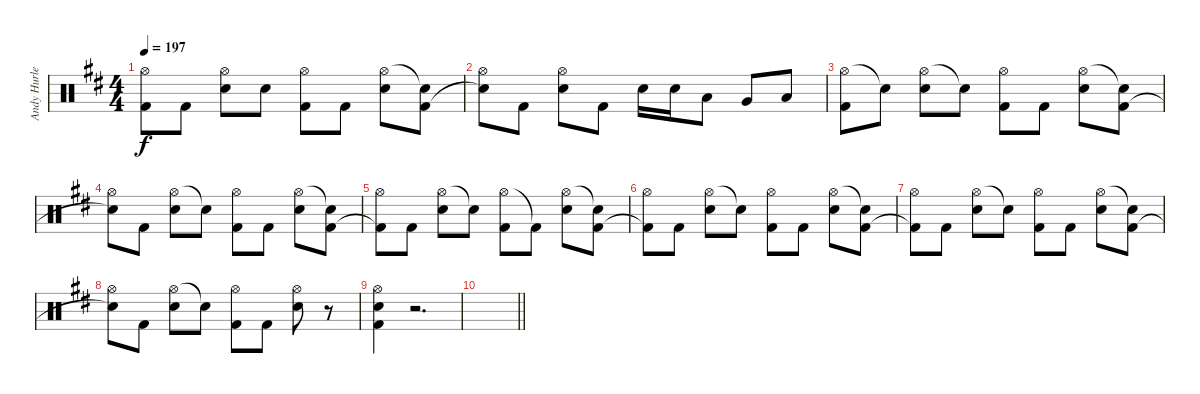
\track ("Andy Hurley (Drums)" "Andy Hurle") {instrument percussion}
\staff {score}
\articulation defaults
\ts (4 4)
\tempo 197
\clef neutral
\ks d
("Hi-Hat (open)" "Kick (hit) 2"{t}).8{dy f} "Kick (hit) 2".8 ("Hi-Hat (open)" "Electric Snare (hit)").8 "Electric Snare (hit)".8 ("Hi-Hat (open)" "Kick (hit) 2").8 "Kick (hit) 2".8 ("Hi-Hat (open)" "Electric Snare (hit)").8 ("Snare (hit)"{t} "Kick (hit) 2").8 |
("Hi-Hat (open)" "Snare (hit)"{t}).8 "Kick (hit) 2".8 ("Hi-Hat (open)" "Electric Snare (hit)").8 "Kick (hit) 2".8 "Electric Snare (hit)".16 "Electric Snare (hit)".16 "Low Tom (hit)".8 "Very Low Tom (hit)".8 "Low Floor Tom (hit)".8 |
("Hi-Hat (open)" "Kick (hit) 2").8 "Snare (hit)"{t}.8 ("Hi-Hat (open)" "Electric Snare (hit)").8 "Snare (hit)"{t}.8 ("Hi-Hat (open)" "Kick (hit) 2").8 "Kick (hit) 2".8 ("Hi-Hat (open)" "Electric Snare (hit)").8 ("Snare (hit)"{t} "Kick (hit) 2").8 |
("Hi-Hat (open)" "Snare (hit)"{t}).8 "Kick (hit) 2".8 ("Hi-Hat (open)" "Electric Snare (hit)").8 "Snare (hit)"{t}.8 ("Hi-Hat (open)" "Kick (hit) 2").8 "Kick (hit) 2".8 ("Hi-Hat (open)" "Electric Snare (hit)").8 ("Snare (hit)"{t} "Kick (hit) 2").8 |
("Hi-Hat (open)" "Kick (hit) 2"{t}).8 "Kick (hit) 2".8 ("Hi-Hat (open)" "Electric Snare (hit)").8 "Snare (hit)"{t}.8 ("Hi-Hat (open)" "Kick (hit) 2").8 "Kick (hit) 2"{t}.8 ("Hi-Hat (open)" "Electric Snare (hit)").8 ("Snare (hit)"{t} "Kick (hit) 2").8 |
("Hi-Hat (open)" "Kick (hit) 2"{t}).8 "Kick (hit) 2".8 ("Hi-Hat (open)" "Electric Snare (hit)").8 "Snare (hit)"{t}.8 ("Hi-Hat (open)" "Kick (hit) 2").8 "Kick (hit) 2".8 ("Hi-Hat (open)" "Electric Snare (hit)").8 ("Snare (hit)"{t} "Kick (hit) 2").8 |
("Hi-Hat (open)" "Kick (hit) 2"{t}).8 "Kick (hit) 2".8 ("Hi-Hat (open)" "Electric Snare (hit)").8 "Snare (hit)"{t}.8 ("Hi-Hat (open)" "Kick (hit) 2").8 "Kick (hit) 2".8 ("Hi-Hat (open)" "Electric Snare (hit)").8 ("Snare (hit)"{t} "Kick (hit) 2").8 |
("Hi-Hat (open)" "Snare (hit)"{t}).8 "Kick (hit) 2".8 ("Hi-Hat (open)" "Electric Snare (hit)").8 "Snare (hit)"{t}.8 ("Hi-Hat (open)" "Kick (hit) 2").8 "Kick (hit) 2".8 ("Hi-Hat (open)" "Electric Snare (hit)").8 r.8 |
("Hi-Hat (open)" "Electric Snare (hit)" "Kick (hit) 2").4 r.2{d} |
\barLineRight lightlight
